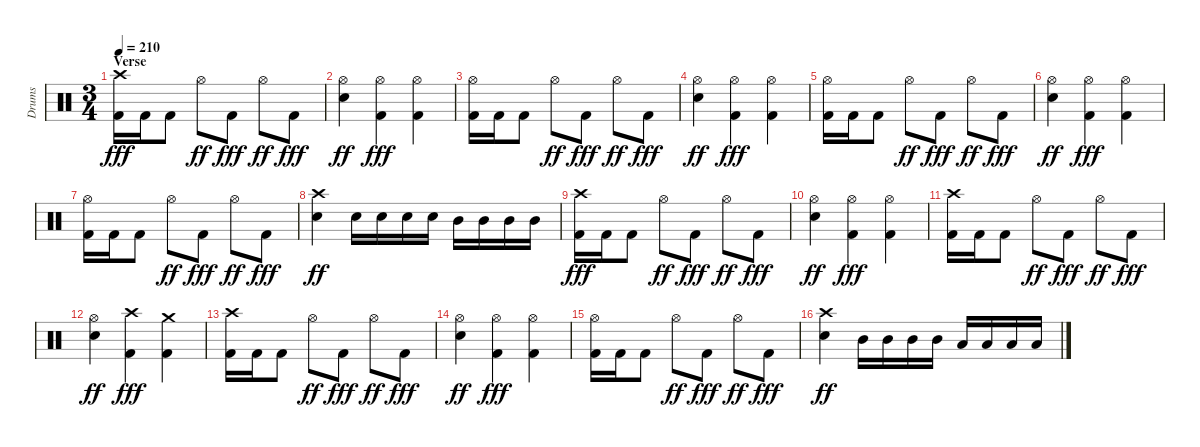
\track ("Drums" "Drums") {instrument percussion}
\staff {score}
\articulation defaults
\ts (3 4)
\section ("" "Verse")
\tempo 210
\clef neutral
\ks c
("Crash high (hit)" "Kick (hit) 2").16{dy fff} "Kick (hit) 2".16 "Kick (hit) 2".8 "Hi-Hat (open)".8{dy ff} "Kick (hit) 2".8{dy fff} "Hi-Hat (open)".8{dy ff} "Kick (hit) 2".8{dy fff} |
("Hi-Hat (open)" "Snare (hit) 2").4{dy ff} ("Hi-Hat (open)" "Kick (hit) 2").4{dy fff} ("Hi-Hat (open)" "Kick (hit) 2").4 |
("Hi-Hat (open)" "Kick (hit) 2").16 "Kick (hit) 2".16 "Kick (hit) 2".8 "Hi-Hat (open)".8{dy ff} "Kick (hit) 2".8{dy fff} "Hi-Hat (open)".8{dy ff} "Kick (hit) 2".8{dy fff} |
("Hi-Hat (open)" "Snare (hit) 2").4{dy ff} ("Hi-Hat (open)" "Kick (hit) 2").4{dy fff} ("Hi-Hat (open)" "Kick (hit) 2").4 |
("Hi-Hat (open)" "Kick (hit) 2").16 "Kick (hit) 2".16 "Kick (hit) 2".8 "Hi-Hat (open)".8{dy ff} "Kick (hit) 2".8{dy fff} "Hi-Hat (open)".8{dy ff} "Kick (hit) 2".8{dy fff} |
("Hi-Hat (open)" "Snare (hit) 2").4{dy ff} ("Hi-Hat (open)" "Kick (hit) 2").4{dy fff} ("Hi-Hat (open)" "Kick (hit) 2").4 |
("Hi-Hat (open)" "Kick (hit) 2").16 "Kick (hit) 2".16 "Kick (hit) 2".8 "Hi-Hat (open)".8{dy ff} "Kick (hit) 2".8{dy fff} "Hi-Hat (open)".8{dy ff} "Kick (hit) 2".8{dy fff} |
("Crash high (hit)" "Snare (hit) 2").4{dy ff} "Snare (hit) 2".16 "Snare (hit) 2".16 "Snare (hit) 2".16 "Snare (hit) 2".16 "Mid Tom (hit)".16 "Mid Tom (hit)".16 "Mid Tom (hit)".16 "Mid Tom (hit)".16 |
("Crash high (hit)" "Kick (hit) 2").16{dy fff} "Kick (hit) 2".16 "Kick (hit) 2".8 "Hi-Hat (open)".8{dy ff} "Kick (hit) 2".8{dy fff} "Hi-Hat (open)".8{dy ff} "Kick (hit) 2".8{dy fff} |
("Hi-Hat (open)" "Snare (hit) 2").4{dy ff} ("Hi-Hat (open)" "Kick (hit) 2").4{dy fff} ("Hi-Hat (open)" "Kick (hit) 2").4 |
("Crash high (hit)" "Kick (hit) 2").16 "Kick (hit) 2".16 "Kick (hit) 2".8 "Hi-Hat (open)".8{dy ff} "Kick (hit) 2".8{dy fff} "Hi-Hat (open)".8{dy ff} "Kick (hit) 2".8{dy fff} |
("Hi-Hat (open)" "Snare (hit) 2").4{dy ff} ("Crash high (hit)" "Kick (hit) 2").4{dy fff} ("Crash medium (hit)" "Kick (hit) 2").4 |
("Crash high (hit)" "Kick (hit) 2").16 "Kick (hit) 2".16 "Kick (hit) 2".8 "Hi-Hat (open)".8{dy ff} "Kick (hit) 2".8{dy fff} "Hi-Hat (open)".8{dy ff} "Kick (hit) 2".8{dy fff} |
("Hi-Hat (open)" "Snare (hit) 2").4{dy ff} ("Hi-Hat (open)" "Kick (hit) 2").4{dy fff} ("Hi-Hat (open)" "Kick (hit) 2").4 |
("Hi-Hat (open)" "Kick (hit) 2").16 "Kick (hit) 2".16 "Kick (hit) 2".8 "Hi-Hat (open)".8{dy ff} "Kick (hit) 2".8{dy fff} "Hi-Hat (open)".8{dy ff} "Kick (hit) 2".8{dy fff} |
("Crash high (hit)" "Snare (hit) 2").4{dy ff} "Mid Tom (hit)".16 "Mid Tom (hit)".16 "Mid Tom (hit)".16 "Mid Tom (hit)".16 "Low Tom (hit)".16 "Low Tom (hit)".16 "Low Tom (hit)".16 "Low Tom (hit)".16
